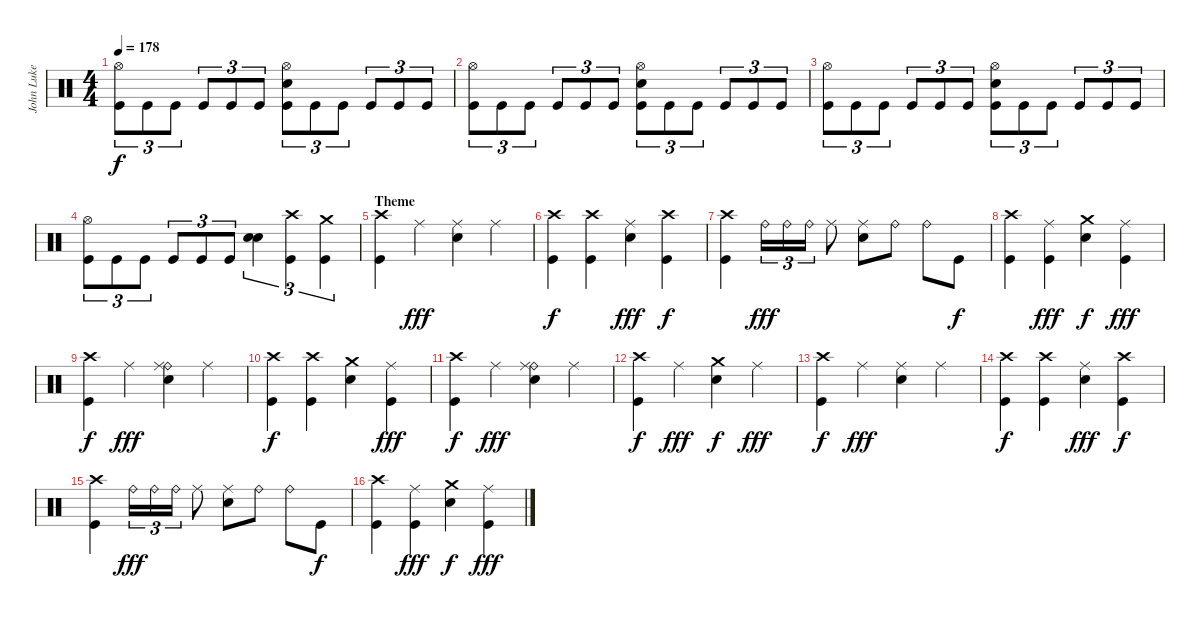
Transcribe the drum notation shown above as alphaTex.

\track ("John Luke (Drums)" "John Luke ") {instrument percussion}
\staff {score}
\articulation defaults
\ts (4 4)
\tempo 178
\clef neutral
\ks c
("Hi-Hat (open)" "Kick (hit)").8{tu (3 2) dy f} "Kick (hit)".8{tu (3 2)} "Kick (hit)".8{tu (3 2)} "Kick (hit)".8{tu (3 2)} "Kick (hit)".8{tu (3 2)} "Kick (hit)".8{tu (3 2)} ("Hi-Hat (open)" "Electric Snare (hit)" "Kick (hit)").8{tu (3 2)} "Kick (hit)".8{tu (3 2)} "Kick (hit)".8{tu (3 2)} "Kick (hit)".8{tu (3 2)} "Kick (hit)".8{tu (3 2)} "Kick (hit)".8{tu (3 2)} |
("Hi-Hat (open)" "Kick (hit)").8{tu (3 2)} "Kick (hit)".8{tu (3 2)} "Kick (hit)".8{tu (3 2)} "Kick (hit)".8{tu (3 2)} "Kick (hit)".8{tu (3 2)} "Kick (hit)".8{tu (3 2)} ("Hi-Hat (open)" "Electric Snare (hit)" "Kick (hit)").8{tu (3 2)} "Kick (hit)".8{tu (3 2)} "Kick (hit)".8{tu (3 2)} "Kick (hit)".8{tu (3 2)} "Kick (hit)".8{tu (3 2)} "Kick (hit)".8{tu (3 2)} |
("Hi-Hat (open)" "Kick (hit)").8{tu (3 2)} "Kick (hit)".8{tu (3 2)} "Kick (hit)".8{tu (3 2)} "Kick (hit)".8{tu (3 2)} "Kick (hit)".8{tu (3 2)} "Kick (hit)".8{tu (3 2)} ("Hi-Hat (open)" "Electric Snare (hit)" "Kick (hit)").8{tu (3 2)} "Kick (hit)".8{tu (3 2)} "Kick (hit)".8{tu (3 2)} "Kick (hit)".8{tu (3 2)} "Kick (hit)".8{tu (3 2)} "Kick (hit)".8{tu (3 2)} |
("Hi-Hat (open)" "Kick (hit)").8{tu (3 2)} "Kick (hit)".8{tu (3 2)} "Kick (hit)".8{tu (3 2)} "Kick (hit)".8{tu (3 2)} "Kick (hit)".8{tu (3 2)} "Kick (hit)".8{tu (3 2)} ("Electric Snare (hit)" "Electric Snare (hit)").4{tu (3 2) bu 240} ("Crash high (hit)" "Kick (hit)").4{tu (3 2)} ("Crash medium (hit)" "Kick (hit)").4{tu (3 2)} |
\section ("" "Theme")
("Crash high (hit)" "Kick (hit)").4 "Ride (middle)".4{dy fff} ("Ride (middle)" "Electric Snare (hit)").4 "Ride (middle)".4 |
("Crash high (hit)" "Kick (hit)").4{dy f} ("Crash high (hit)" "Kick (hit)").4 ("Ride (middle)" "Electric Snare (hit)").4{dy fff} ("Crash high (hit)" "Kick (hit)").4{dy f} |
("Crash high (hit)" "Kick (hit)").4 "Ride (bell)".16{tu (3 2) dy fff} "Ride (bell)".16{tu (3 2)} "Ride (bell)".16{tu (3 2)} "Ride (middle)".8 ("Ride (middle)" "Electric Snare (hit)").8 "Ride (bell)".8 "Ride (bell)".8 "Kick (hit)".8{dy f} |
("Crash high (hit)" "Kick (hit)").4 ("Ride (middle)" "Kick (hit)").4{dy fff} ("Crash medium (hit)" "Electric Snare (hit)").4{dy f} ("Ride (middle)" "Kick (hit)").4{dy fff} |
("Crash high (hit)" "Kick (hit)").4{dy f} "Ride (middle)".4{dy fff} ("Ride (bell)" "Ride (middle)" "Electric Snare (hit)").4 "Ride (middle)".4 |
("Crash high (hit)" "Kick (hit)").4{dy f} ("Crash high (hit)" "Kick (hit)").4 ("Crash medium (hit)" "Electric Snare (hit)").4 ("Ride (middle)" "Kick (hit)").4{dy fff} |
("Crash high (hit)" "Kick (hit)").4{dy f} "Ride (middle)".4{dy fff} ("Ride (bell)" "Ride (middle)" "Electric Snare (hit)").4 "Ride (middle)".4 |
("Crash high (hit)" "Kick (hit)").4{dy f} "Ride (middle)".4{dy fff} ("Crash medium (hit)" "Electric Snare (hit)").4{dy f} "Ride (middle)".4{dy fff} |
("Crash high (hit)" "Kick (hit)").4{dy f} "Ride (middle)".4{dy fff} ("Ride (middle)" "Electric Snare (hit)").4 "Ride (middle)".4 |
("Crash high (hit)" "Kick (hit)").4{dy f} ("Crash high (hit)" "Kick (hit)").4 ("Ride (middle)" "Electric Snare (hit)").4{dy fff} ("Crash high (hit)" "Kick (hit)").4{dy f} |
("Crash high (hit)" "Kick (hit)").4 "Ride (bell)".16{tu (3 2) dy fff} "Ride (bell)".16{tu (3 2)} "Ride (bell)".16{tu (3 2)} "Ride (middle)".8 ("Ride (middle)" "Electric Snare (hit)").8 "Ride (bell)".8 "Ride (bell)".8 "Kick (hit)".8{dy f} |
("Crash high (hit)" "Kick (hit)").4 ("Ride (middle)" "Kick (hit)").4{dy fff} ("Crash medium (hit)" "Electric Snare (hit)").4{dy f} ("Ride (middle)" "Kick (hit)").4{dy fff}
